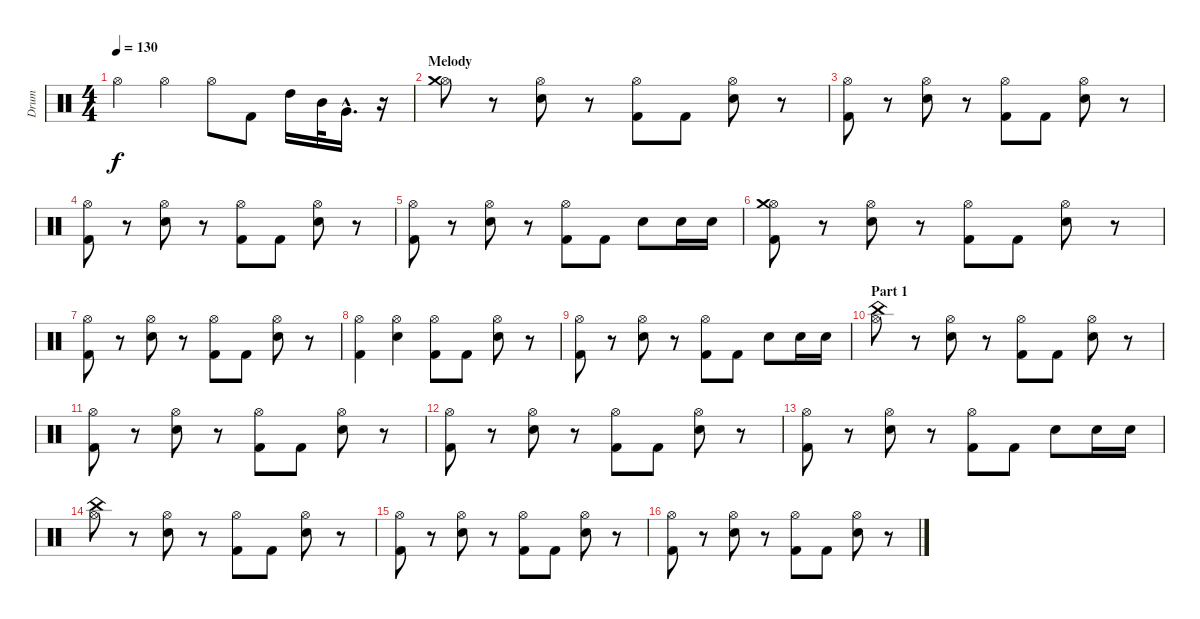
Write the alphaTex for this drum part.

\track ("Drum" "Drum") {instrument percussion}
\staff {score}
\articulation defaults
\ts (4 4)
\tempo 130
\clef neutral
\ks c "Hi-Hat (open)".4{dy f} "Hi-Hat (open)".4 "Hi-Hat (open)".8 "Kick (hit) 2".8 "High Tom (hit)".16 "Mid Tom (hit)".32 "Very Low Tom (hit)"{hac}.16{d}
r.16 |
\section ("" "Melody")
("Hi-Hat (open)" "Crash medium (hit)").8 r.8 ("Hi-Hat (open)" "Electric Snare (hit)").8 r.8 ("Hi-Hat (open)" "Kick (hit) 2").8 "Kick (hit) 2".8 ("Hi-Hat (open)" "Electric Snare (hit)").8 r.8 |
("Hi-Hat (open)" "Kick (hit) 2").8 r.8 ("Hi-Hat (open)" "Electric Snare (hit)").8 r.8 ("Hi-Hat (open)" "Kick (hit) 2").8 "Kick (hit) 2".8 ("Hi-Hat (open)" "Electric Snare (hit)").8 r.8 |
("Hi-Hat (open)" "Kick (hit) 2").8 r.8 ("Hi-Hat (open)" "Electric Snare (hit)").8 r.8 ("Hi-Hat (open)" "Kick (hit) 2").8 "Kick (hit) 2".8 ("Hi-Hat (open)" "Electric Snare (hit)").8 r.8 |
("Hi-Hat (open)" "Kick (hit) 2").8 r.8 ("Hi-Hat (open)" "Electric Snare (hit)").8 r.8 ("Hi-Hat (open)" "Kick (hit) 2").8 "Kick (hit) 2".8 "Electric Snare (hit)".8 "Electric Snare (hit)".16 "Electric Snare (hit)".16 |
("Hi-Hat (open)" "Crash medium (hit)" "Kick (hit) 2").8 r.8 ("Hi-Hat (open)" "Electric Snare (hit)").8 r.8 ("Hi-Hat (open)" "Kick (hit) 2").8 "Kick (hit) 2".8 ("Hi-Hat (open)" "Electric Snare (hit)").8 r.8 |
("Hi-Hat (open)" "Kick (hit) 2").8 r.8 ("Hi-Hat (open)" "Electric Snare (hit)").8 r.8 ("Hi-Hat (open)" "Kick (hit) 2").8 "Kick (hit) 2".8 ("Hi-Hat (open)" "Electric Snare (hit)").8 r.8 |
("Hi-Hat (open)" "Kick (hit) 2").4 ("Hi-Hat (open)" "Electric Snare (hit)").4 ("Hi-Hat (open)" "Kick (hit) 2").8 "Kick (hit) 2".8 ("Hi-Hat (open)" "Electric Snare (hit)").8 r.8 |
("Hi-Hat (open)" "Kick (hit) 2").8 r.8 ("Hi-Hat (open)" "Electric Snare (hit)").8 r.8 ("Hi-Hat (open)" "Kick (hit) 2").8 "Kick (hit) 2".8 "Electric Snare (hit)".8 "Electric Snare (hit)".16 "Electric Snare (hit)".16 |
\section ("" "Part 1")
("Hi-Hat (open)" "China (hit)").8 r.8 ("Hi-Hat (open)" "Electric Snare (hit)").8 r.8 ("Hi-Hat (open)" "Kick (hit) 2").8 "Kick (hit) 2".8 ("Hi-Hat (open)" "Electric Snare (hit)").8 r.8 |
("Hi-Hat (open)" "Kick (hit) 2").8 r.8 ("Hi-Hat (open)" "Electric Snare (hit)").8 r.8 ("Hi-Hat (open)" "Kick (hit) 2").8 "Kick (hit) 2".8 ("Hi-Hat (open)" "Electric Snare (hit)").8 r.8 |
("Hi-Hat (open)" "Kick (hit) 2").8 r.8 ("Hi-Hat (open)" "Electric Snare (hit)").8 r.8 ("Hi-Hat (open)" "Kick (hit) 2").8 "Kick (hit) 2".8 ("Hi-Hat (open)" "Electric Snare (hit)").8 r.8 |
("Hi-Hat (open)" "Kick (hit) 2").8 r.8 ("Hi-Hat (open)" "Electric Snare (hit)").8 r.8 ("Hi-Hat (open)" "Kick (hit) 2").8 "Kick (hit) 2".8 "Electric Snare (hit)".8 "Electric Snare (hit)".16 "Electric Snare (hit)".16 |
("Hi-Hat (open)" "China (hit)").8 r.8 ("Hi-Hat (open)" "Electric Snare (hit)").8 r.8 ("Hi-Hat (open)" "Kick (hit) 2").8 "Kick (hit) 2".8 ("Hi-Hat (open)" "Electric Snare (hit)").8 r.8 |
("Hi-Hat (open)" "Kick (hit) 2").8 r.8 ("Hi-Hat (open)" "Electric Snare (hit)").8 r.8 ("Hi-Hat (open)" "Kick (hit) 2").8 "Kick (hit) 2".8 ("Hi-Hat (open)" "Electric Snare (hit)").8 r.8 |
("Hi-Hat (open)" "Kick (hit) 2").8 r.8 ("Hi-Hat (open)" "Electric Snare (hit)").8 r.8 ("Hi-Hat (open)" "Kick (hit) 2").8 "Kick (hit) 2".8 ("Hi-Hat (open)" "Electric Snare (hit)").8 r.8
